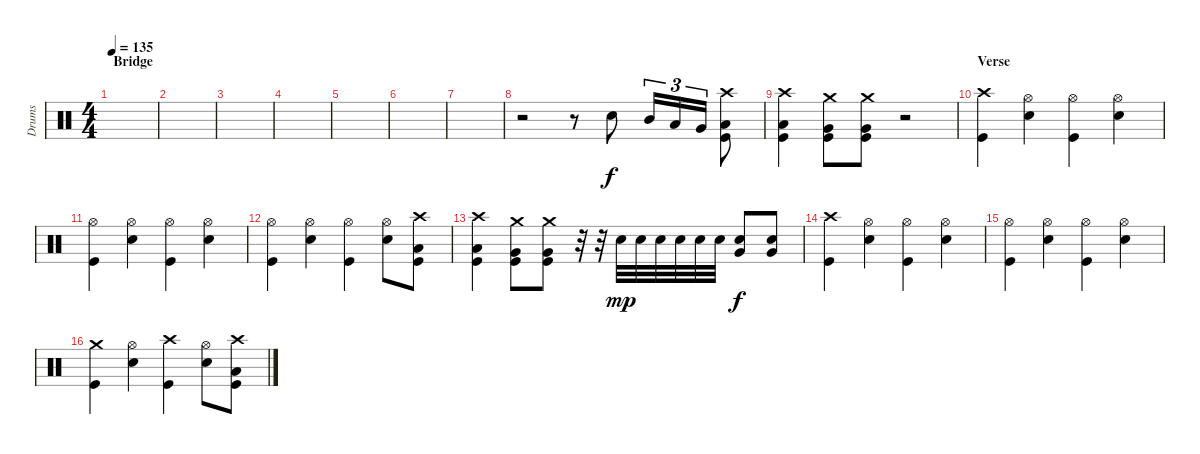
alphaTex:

\track ("Drums" "Drums") {instrument percussion}
\staff {score}
\articulation defaults
\ts (4 4)
\section ("" "Bridge")
\tempo 135
\clef neutral
\ks c
|
|
|
|
|
|
|
r.2 r.8 "Snare (hit) 2".8 "Mid Tom (hit)".16{tu (3 2)} "Low Tom (hit)".16{tu (3 2)} "Very Low Tom (hit)".16{tu (3 2)} ("Crash high (hit)" "Low Floor Tom (hit)" "Kick (hit)").8 |
("Crash high (hit)" "Low Floor Tom (hit)" "Kick (hit)").4 ("Crash medium (hit)" "Very Low Tom (hit)" "Kick (hit)").8 ("Crash medium (hit)" "Very Low Tom (hit)" "Kick (hit)").8 r.2 |
\section ("" "Verse")
("Crash high (hit)" "Kick (hit)").4 ("Hi-Hat (open)" "Snare (hit) 2").4 ("Hi-Hat (open)" "Kick (hit)").4 ("Hi-Hat (open)" "Snare (hit) 2").4 |
("Hi-Hat (open)" "Kick (hit)").4 ("Hi-Hat (open)" "Snare (hit) 2").4 ("Hi-Hat (open)" "Kick (hit)").4 ("Hi-Hat (open)" "Snare (hit) 2").4 |
("Hi-Hat (open)" "Kick (hit)").4 ("Hi-Hat (open)" "Snare (hit) 2").4 ("Hi-Hat (open)" "Kick (hit)").4 ("Hi-Hat (open)" "Snare (hit) 2").8 ("Crash high (hit)" "Low Floor Tom (hit)" "Kick (hit)").8 |
("Crash high (hit)" "Low Floor Tom (hit)" "Kick (hit)").4 ("Crash medium (hit)" "Very Low Tom (hit)" "Kick (hit)").8 ("Crash medium (hit)" "Very Low Tom (hit)" "Kick (hit)").8 r.32 r.32 "Snare (hit) 2".32{dy mp} "Snare (hit) 2".32 "Snare (hit) 2".32 "Snare (hit) 2".32 "Snare (hit) 2".32 "Snare (hit) 2".32 ("Snare (hit) 2" "Very Low Tom (hit)").8{dy f} ("Snare (hit) 2" "Very Low Tom (hit)").8 |
("Crash high (hit)" "Kick (hit)").4 ("Hi-Hat (open)" "Snare (hit) 2").4 ("Hi-Hat (open)" "Kick (hit)").4 ("Hi-Hat (open)" "Snare (hit) 2").4 |
("Hi-Hat (open)" "Kick (hit)").4 ("Hi-Hat (open)" "Snare (hit) 2").4 ("Hi-Hat (open)" "Kick (hit)").4 ("Hi-Hat (open)" "Snare (hit) 2").4 |
("Crash medium (hit)" "Kick (hit)").4 ("Hi-Hat (open)" "Snare (hit) 2").4 ("Crash high (hit)" "Kick (hit)").4 ("Hi-Hat (open)" "Snare (hit) 2").8 ("Crash high (hit)" "Low Floor Tom (hit)" "Kick (hit)").8
